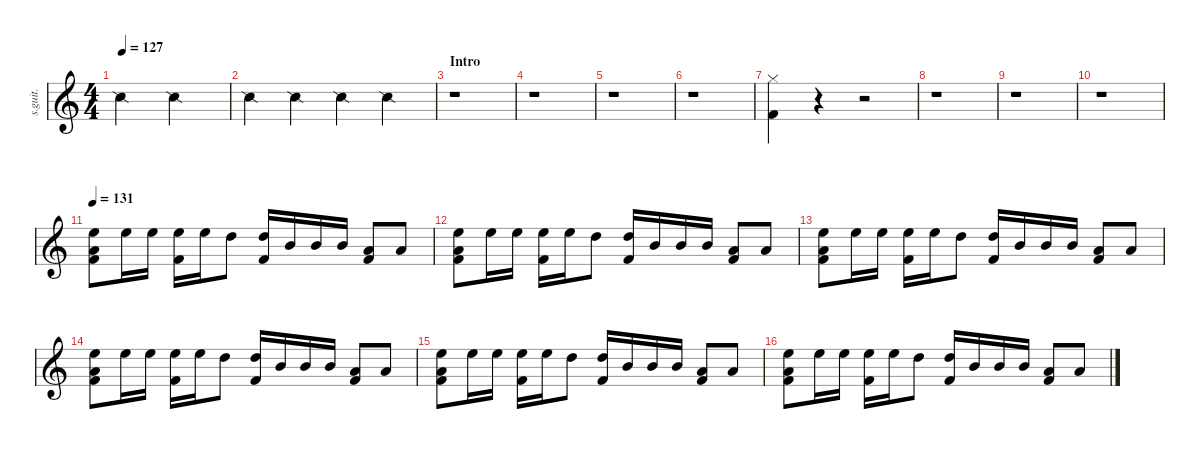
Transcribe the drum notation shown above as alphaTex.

\defaultSystemsLayout 4
\hideDynamics
\bracketExtendMode nobrackets
\track ("John Dolmayan" "s.guit.") {instrument percussion}
\staff {score}
\articulation defaults
\ts (4 4)
\beaming (8 2 2 2 2)
\tempo 127
\clef g2
\ks c "Snare (side stick) 2".2{lyrics (0 "") lyrics (1 "") lyrics (2 "") lyrics (3 "") lyrics (4 "") dy f} "Snare (side stick) 2".2{lyrics (0 "") lyrics (1 "") lyrics (2 "") lyrics (3 "") lyrics (4 "")}
|
"Snare (side stick) 2".4{lyrics (0 "") lyrics (1 "") lyrics (2 "") lyrics (3 "") lyrics (4 "")} "Snare (side stick) 2".4{lyrics (0 "") lyrics (1 "") lyrics (2 "") lyrics (3 "") lyrics (4 "")} "Snare (side stick) 2".4{lyrics (0 "") lyrics (1 "") lyrics (2 "") lyrics (3 "") lyrics (4 "")} "Snare (side stick) 2".4{lyrics (0 "") lyrics (1 "") lyrics (2 "") lyrics (3 "") lyrics (4 "")} |
\section ("" "Intro")
r.1 |
r.1 |
r.1 |
r.1 |
("Hi-Hat (closed)" "Kick (hit) 2").4{lyrics (0 "") lyrics (1 "") lyrics (2 "") lyrics (3 "") lyrics (4 "")} r.4 r.2 |
r.1 |
r.1 |
r.1 |
\tempo 131
("High Floor Tom (hit)" "Low Tom (hit)" "Kick (hit) 2").8{lyrics (0 "") lyrics (1 "") lyrics (2 "") lyrics (3 "") lyrics (4 "")} "High Floor Tom (hit)".16{lyrics (0 "") lyrics (1 "") lyrics (2 "") lyrics (3 "") lyrics (4 "")} "High Floor Tom (hit)".16{lyrics (0 "") lyrics (1 "") lyrics (2 "") lyrics (3 "") lyrics (4 "")} ("High Floor Tom (hit)" "Kick (hit) 2").16{lyrics (0 "") lyrics (1 "") lyrics (2 "") lyrics (3 "") lyrics (4 "")} "High Floor Tom (hit)".16{lyrics (0 "") lyrics (1 "") lyrics (2 "") lyrics (3 "") lyrics (4 "")} "High Tom (hit)".8{lyrics (0 "") lyrics (1 "") lyrics (2 "") lyrics (3 "") lyrics (4 "")} ("High Tom (hit)" "Kick (hit) 2").16{lyrics (0 "") lyrics (1 "") lyrics (2 "") lyrics (3 "") lyrics (4 "")} "Mid Tom (hit)".16{lyrics (0 "") lyrics (1 "") lyrics (2 "") lyrics (3 "") lyrics (4 "")} "Mid Tom (hit)".16{lyrics (0 "") lyrics (1 "") lyrics (2 "") lyrics (3 "") lyrics (4 "")} "Mid Tom (hit)".16{lyrics (0 "") lyrics (1 "") lyrics (2 "") lyrics (3 "") lyrics (4 "")} ("Low Tom (hit)" "Kick (hit) 2").8{lyrics (0 "") lyrics (1 "") lyrics (2 "") lyrics (3 "") lyrics (4 "")} "Low Tom (hit)".8{lyrics (0 "") lyrics (1 "") lyrics (2 "") lyrics (3 "") lyrics (4 "")} |
("High Floor Tom (hit)" "Low Tom (hit)" "Kick (hit) 2").8{lyrics (0 "") lyrics (1 "") lyrics (2 "") lyrics (3 "") lyrics (4 "")} "High Floor Tom (hit)".16{lyrics (0 "") lyrics (1 "") lyrics (2 "") lyrics (3 "") lyrics (4 "")} "High Floor Tom (hit)".16{lyrics (0 "") lyrics (1 "") lyrics (2 "") lyrics (3 "") lyrics (4 "")} ("High Floor Tom (hit)" "Kick (hit) 2").16{lyrics (0 "") lyrics (1 "") lyrics (2 "") lyrics (3 "") lyrics (4 "")} "High Floor Tom (hit)".16{lyrics (0 "") lyrics (1 "") lyrics (2 "") lyrics (3 "") lyrics (4 "")} "High Tom (hit)".8{lyrics (0 "") lyrics (1 "") lyrics (2 "") lyrics (3 "") lyrics (4 "")} ("High Tom (hit)" "Kick (hit) 2").16{lyrics (0 "") lyrics (1 "") lyrics (2 "") lyrics (3 "") lyrics (4 "")} "Mid Tom (hit)".16{lyrics (0 "") lyrics (1 "") lyrics (2 "") lyrics (3 "") lyrics (4 "")} "Mid Tom (hit)".16{lyrics (0 "") lyrics (1 "") lyrics (2 "") lyrics (3 "") lyrics (4 "")} "Mid Tom (hit)".16{lyrics (0 "") lyrics (1 "") lyrics (2 "") lyrics (3 "") lyrics (4 "")} ("Low Tom (hit)" "Kick (hit) 2").8{lyrics (0 "") lyrics (1 "") lyrics (2 "") lyrics (3 "") lyrics (4 "")} "Low Tom (hit)".8{lyrics (0 "") lyrics (1 "") lyrics (2 "") lyrics (3 "") lyrics (4 "")} |
("High Floor Tom (hit)" "Low Tom (hit)" "Kick (hit) 2").8{lyrics (0 "") lyrics (1 "") lyrics (2 "") lyrics (3 "") lyrics (4 "")} "High Floor Tom (hit)".16{lyrics (0 "") lyrics (1 "") lyrics (2 "") lyrics (3 "") lyrics (4 "")} "High Floor Tom (hit)".16{lyrics (0 "") lyrics (1 "") lyrics (2 "") lyrics (3 "") lyrics (4 "")} ("High Floor Tom (hit)" "Kick (hit) 2").16{lyrics (0 "") lyrics (1 "") lyrics (2 "") lyrics (3 "") lyrics (4 "")} "High Floor Tom (hit)".16{lyrics (0 "") lyrics (1 "") lyrics (2 "") lyrics (3 "") lyrics (4 "")} "High Tom (hit)".8{lyrics (0 "") lyrics (1 "") lyrics (2 "") lyrics (3 "") lyrics (4 "")} ("High Tom (hit)" "Kick (hit) 2").16{lyrics (0 "") lyrics (1 "") lyrics (2 "") lyrics (3 "") lyrics (4 "")} "Mid Tom (hit)".16{lyrics (0 "") lyrics (1 "") lyrics (2 "") lyrics (3 "") lyrics (4 "")} "Mid Tom (hit)".16{lyrics (0 "") lyrics (1 "") lyrics (2 "") lyrics (3 "") lyrics (4 "")} "Mid Tom (hit)".16{lyrics (0 "") lyrics (1 "") lyrics (2 "") lyrics (3 "") lyrics (4 "")} ("Low Tom (hit)" "Kick (hit) 2").8{lyrics (0 "") lyrics (1 "") lyrics (2 "") lyrics (3 "") lyrics (4 "")} "Low Tom (hit)".8{lyrics (0 "") lyrics (1 "") lyrics (2 "") lyrics (3 "") lyrics (4 "")} |
("High Floor Tom (hit)" "Low Tom (hit)" "Kick (hit) 2").8{lyrics (0 "") lyrics (1 "") lyrics (2 "") lyrics (3 "") lyrics (4 "")} "High Floor Tom (hit)".16{lyrics (0 "") lyrics (1 "") lyrics (2 "") lyrics (3 "") lyrics (4 "")} "High Floor Tom (hit)".16{lyrics (0 "") lyrics (1 "") lyrics (2 "") lyrics (3 "") lyrics (4 "")} ("High Floor Tom (hit)" "Kick (hit) 2").16{lyrics (0 "") lyrics (1 "") lyrics (2 "") lyrics (3 "") lyrics (4 "")} "High Floor Tom (hit)".16{lyrics (0 "") lyrics (1 "") lyrics (2 "") lyrics (3 "") lyrics (4 "")} "High Tom (hit)".8{lyrics (0 "") lyrics (1 "") lyrics (2 "") lyrics (3 "") lyrics (4 "")} ("High Tom (hit)" "Kick (hit) 2").16{lyrics (0 "") lyrics (1 "") lyrics (2 "") lyrics (3 "") lyrics (4 "")} "Mid Tom (hit)".16{lyrics (0 "") lyrics (1 "") lyrics (2 "") lyrics (3 "") lyrics (4 "")} "Mid Tom (hit)".16{lyrics (0 "") lyrics (1 "") lyrics (2 "") lyrics (3 "") lyrics (4 "")} "Mid Tom (hit)".16{lyrics (0 "") lyrics (1 "") lyrics (2 "") lyrics (3 "") lyrics (4 "")} ("Low Tom (hit)" "Kick (hit) 2").8{lyrics (0 "") lyrics (1 "") lyrics (2 "") lyrics (3 "") lyrics (4 "")} "Low Tom (hit)".8{lyrics (0 "") lyrics (1 "") lyrics (2 "") lyrics (3 "") lyrics (4 "")} |
("High Floor Tom (hit)" "Low Tom (hit)" "Kick (hit) 2").8{lyrics (0 "") lyrics (1 "") lyrics (2 "") lyrics (3 "") lyrics (4 "")} "High Floor Tom (hit)".16{lyrics (0 "") lyrics (1 "") lyrics (2 "") lyrics (3 "") lyrics (4 "")} "High Floor Tom (hit)".16{lyrics (0 "") lyrics (1 "") lyrics (2 "") lyrics (3 "") lyrics (4 "")} ("High Floor Tom (hit)" "Kick (hit) 2").16{lyrics (0 "") lyrics (1 "") lyrics (2 "") lyrics (3 "") lyrics (4 "")} "High Floor Tom (hit)".16{lyrics (0 "") lyrics (1 "") lyrics (2 "") lyrics (3 "") lyrics (4 "")} "High Tom (hit)".8{lyrics (0 "") lyrics (1 "") lyrics (2 "") lyrics (3 "") lyrics (4 "")} ("High Tom (hit)" "Kick (hit) 2").16{lyrics (0 "") lyrics (1 "") lyrics (2 "") lyrics (3 "") lyrics (4 "")} "Mid Tom (hit)".16{lyrics (0 "") lyrics (1 "") lyrics (2 "") lyrics (3 "") lyrics (4 "")} "Mid Tom (hit)".16{lyrics (0 "") lyrics (1 "") lyrics (2 "") lyrics (3 "") lyrics (4 "")} "Mid Tom (hit)".16{lyrics (0 "") lyrics (1 "") lyrics (2 "") lyrics (3 "") lyrics (4 "")} ("Low Tom (hit)" "Kick (hit) 2").8{lyrics (0 "") lyrics (1 "") lyrics (2 "") lyrics (3 "") lyrics (4 "")} "Low Tom (hit)".8{lyrics (0 "") lyrics (1 "") lyrics (2 "") lyrics (3 "") lyrics (4 "")} |
("High Floor Tom (hit)" "Low Tom (hit)" "Kick (hit) 2").8{lyrics (0 "") lyrics (1 "") lyrics (2 "") lyrics (3 "") lyrics (4 "")} "High Floor Tom (hit)".16{lyrics (0 "") lyrics (1 "") lyrics (2 "") lyrics (3 "") lyrics (4 "")} "High Floor Tom (hit)".16{lyrics (0 "") lyrics (1 "") lyrics (2 "") lyrics (3 "") lyrics (4 "")} ("High Floor Tom (hit)" "Kick (hit) 2").16{lyrics (0 "") lyrics (1 "") lyrics (2 "") lyrics (3 "") lyrics (4 "")} "High Floor Tom (hit)".16{lyrics (0 "") lyrics (1 "") lyrics (2 "") lyrics (3 "") lyrics (4 "")} "High Tom (hit)".8{lyrics (0 "") lyrics (1 "") lyrics (2 "") lyrics (3 "") lyrics (4 "")} ("High Tom (hit)" "Kick (hit) 2").16{lyrics (0 "") lyrics (1 "") lyrics (2 "") lyrics (3 "") lyrics (4 "")} "Mid Tom (hit)".16{lyrics (0 "") lyrics (1 "") lyrics (2 "") lyrics (3 "") lyrics (4 "")} "Mid Tom (hit)".16{lyrics (0 "") lyrics (1 "") lyrics (2 "") lyrics (3 "") lyrics (4 "")} "Mid Tom (hit)".16{lyrics (0 "") lyrics (1 "") lyrics (2 "") lyrics (3 "") lyrics (4 "")} ("Low Tom (hit)" "Kick (hit) 2").8{lyrics (0 "") lyrics (1 "") lyrics (2 "") lyrics (3 "") lyrics (4 "")} "Low Tom (hit)".8{lyrics (0 "") lyrics (1 "") lyrics (2 "") lyrics (3 "") lyrics (4 "")}
